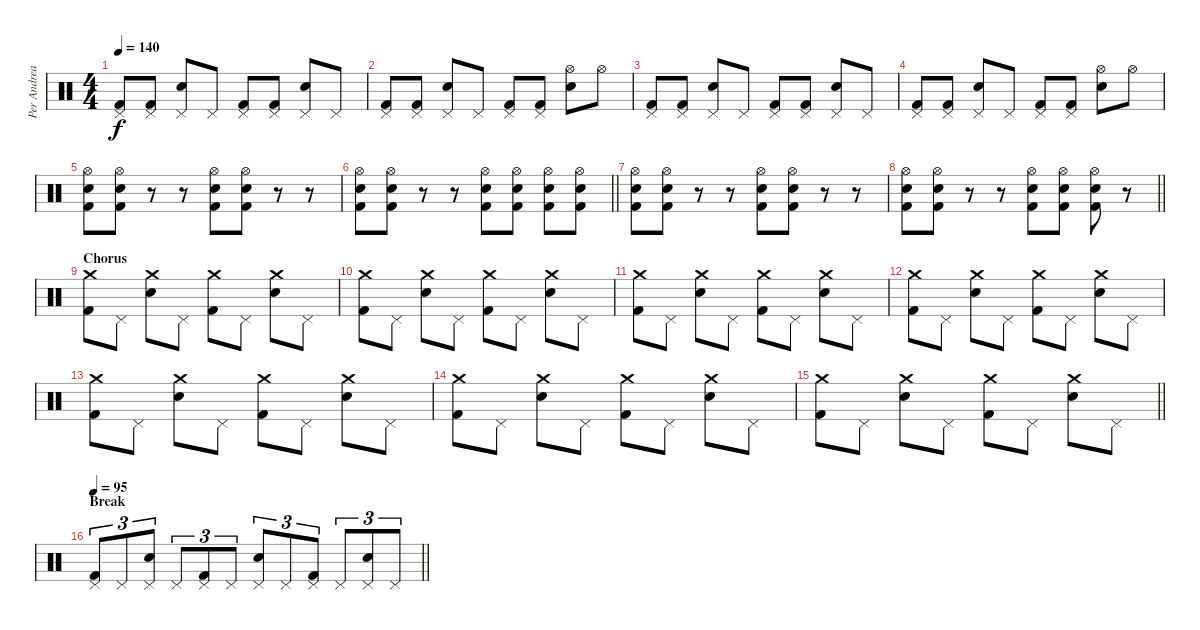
\track ("Per Andreasson" "Per Andrea") {instrument percussion}
\staff {score}
\articulation defaults
\ts (4 4)
\tempo 140
\clef neutral
\ks c
("Pedal Hi-Hat (hit)" "Kick (hit) 2").8{dy f} ("Pedal Hi-Hat (hit)" "Kick (hit) 2").8 ("Pedal Hi-Hat (hit)" "Snare (hit) 2").8 "Pedal Hi-Hat (hit)".8 ("Pedal Hi-Hat (hit)" "Kick (hit) 2").8 ("Pedal Hi-Hat (hit)" "Kick (hit) 2").8 ("Pedal Hi-Hat (hit)" "Snare (hit) 2").8 "Pedal Hi-Hat (hit)".8 |
("Pedal Hi-Hat (hit)" "Kick (hit) 2").8 ("Pedal Hi-Hat (hit)" "Kick (hit) 2").8 ("Pedal Hi-Hat (hit)" "Snare (hit) 2").8 "Pedal Hi-Hat (hit)".8 ("Pedal Hi-Hat (hit)" "Kick (hit) 2").8 ("Pedal Hi-Hat (hit)" "Kick (hit) 2").8 ("Hi-Hat (open)" "Snare (hit) 2").8 "Hi-Hat (open)".8 |
("Pedal Hi-Hat (hit)" "Kick (hit) 2").8 ("Pedal Hi-Hat (hit)" "Kick (hit) 2").8 ("Pedal Hi-Hat (hit)" "Snare (hit) 2").8 "Pedal Hi-Hat (hit)".8 ("Pedal Hi-Hat (hit)" "Kick (hit) 2").8 ("Pedal Hi-Hat (hit)" "Kick (hit) 2").8 ("Pedal Hi-Hat (hit)" "Snare (hit) 2").8 "Pedal Hi-Hat (hit)".8 |
("Pedal Hi-Hat (hit)" "Kick (hit) 2").8 ("Pedal Hi-Hat (hit)" "Kick (hit) 2").8 ("Pedal Hi-Hat (hit)" "Snare (hit) 2").8 "Pedal Hi-Hat (hit)".8 ("Pedal Hi-Hat (hit)" "Kick (hit) 2").8 ("Pedal Hi-Hat (hit)" "Kick (hit) 2").8 ("Hi-Hat (open)" "Snare (hit) 2").8 "Hi-Hat (open)".8 |
("Hi-Hat (open)" "Snare (hit) 2" "Kick (hit) 2").8 ("Hi-Hat (open)" "Snare (hit) 2" "Kick (hit) 2").8 r.8 r.8 ("Hi-Hat (open)" "Snare (hit) 2" "Kick (hit) 2").8 ("Hi-Hat (open)" "Snare (hit) 2" "Kick (hit) 2").8 r.8 r.8 |
\barLineRight lightlight
("Hi-Hat (open)" "Snare (hit) 2" "Kick (hit) 2").8 ("Hi-Hat (open)" "Snare (hit) 2" "Kick (hit) 2").8 r.8 r.8 ("Hi-Hat (open)" "Snare (hit) 2" "Kick (hit) 2").8 ("Hi-Hat (open)" "Snare (hit) 2" "Kick (hit) 2").8 ("Hi-Hat (open)" "Snare (hit) 2" "Kick (hit) 2").8 ("Hi-Hat (open)" "Snare (hit) 2" "Kick (hit) 2").8 |
("Hi-Hat (open)" "Snare (hit) 2" "Kick (hit) 2").8 ("Hi-Hat (open)" "Snare (hit) 2" "Kick (hit) 2").8 r.8 r.8 ("Hi-Hat (open)" "Snare (hit) 2" "Kick (hit) 2").8 ("Hi-Hat (open)" "Snare (hit) 2" "Kick (hit) 2").8 r.8 r.8 |
\barLineRight lightlight
("Hi-Hat (open)" "Snare (hit) 2" "Kick (hit) 2").8 ("Hi-Hat (open)" "Snare (hit) 2" "Kick (hit) 2").8 r.8 r.8 ("Hi-Hat (open)" "Snare (hit) 2" "Kick (hit) 2").8 ("Hi-Hat (open)" "Snare (hit) 2" "Kick (hit) 2").8 ("Hi-Hat (open)" "Snare (hit) 2" "Kick (hit) 2").8 r.8 |
\section ("" "Chorus")
("Crash medium (hit)" "Kick (hit) 2").8 "Pedal Hi-Hat (hit)".8 ("Crash medium (hit)" "Snare (hit) 2").8 "Pedal Hi-Hat (hit)".8 ("Crash medium (hit)" "Kick (hit) 2").8 "Pedal Hi-Hat (hit)".8 ("Crash medium (hit)" "Snare (hit) 2").8 "Pedal Hi-Hat (hit)".8 |
("Crash medium (hit)" "Kick (hit) 2").8 "Pedal Hi-Hat (hit)".8 ("Crash medium (hit)" "Snare (hit) 2").8 "Pedal Hi-Hat (hit)".8 ("Crash medium (hit)" "Kick (hit) 2").8 "Pedal Hi-Hat (hit)".8 ("Crash medium (hit)" "Snare (hit) 2").8 "Pedal Hi-Hat (hit)".8 |
("Crash medium (hit)" "Kick (hit) 2").8 "Pedal Hi-Hat (hit)".8 ("Crash medium (hit)" "Snare (hit) 2").8 "Pedal Hi-Hat (hit)".8 ("Crash medium (hit)" "Kick (hit) 2").8 "Pedal Hi-Hat (hit)".8 ("Crash medium (hit)" "Snare (hit) 2").8 "Pedal Hi-Hat (hit)".8 |
("Crash medium (hit)" "Kick (hit) 2").8 "Pedal Hi-Hat (hit)".8 ("Crash medium (hit)" "Snare (hit) 2").8 "Pedal Hi-Hat (hit)".8 ("Crash medium (hit)" "Kick (hit) 2").8 "Pedal Hi-Hat (hit)".8 ("Crash medium (hit)" "Snare (hit) 2").8 "Pedal Hi-Hat (hit)".8 |
("Crash medium (hit)" "Kick (hit) 2").8 "Pedal Hi-Hat (hit)".8 ("Crash medium (hit)" "Snare (hit) 2").8 "Pedal Hi-Hat (hit)".8 ("Crash medium (hit)" "Kick (hit) 2").8 "Pedal Hi-Hat (hit)".8 ("Crash medium (hit)" "Snare (hit) 2").8 "Pedal Hi-Hat (hit)".8 |
("Crash medium (hit)" "Kick (hit) 2").8 "Pedal Hi-Hat (hit)".8 ("Crash medium (hit)" "Snare (hit) 2").8 "Pedal Hi-Hat (hit)".8 ("Crash medium (hit)" "Kick (hit) 2").8 "Pedal Hi-Hat (hit)".8 ("Crash medium (hit)" "Snare (hit) 2").8 "Pedal Hi-Hat (hit)".8 |
\barLineRight lightlight
("Crash medium (hit)" "Kick (hit) 2").8 "Pedal Hi-Hat (hit)".8 ("Crash medium (hit)" "Snare (hit) 2").8 "Pedal Hi-Hat (hit)".8 ("Crash medium (hit)" "Kick (hit) 2").8 "Pedal Hi-Hat (hit)".8 ("Crash medium (hit)" "Snare (hit) 2").8 "Pedal Hi-Hat (hit)".8 |
\section ("" "Break")
\tempo 95
\barLineRight lightlight
("Pedal Hi-Hat (hit)" "Kick (hit) 2").8{tu (3 2)} "Pedal Hi-Hat (hit)".8{tu (3 2)} ("Pedal Hi-Hat (hit)" "Snare (hit) 2").8{tu (3 2)} "Pedal Hi-Hat (hit)".8{tu (3 2)} ("Pedal Hi-Hat (hit)" "Kick (hit) 2").8{tu (3 2)} "Pedal Hi-Hat (hit)".8{tu (3 2)} ("Pedal Hi-Hat (hit)" "Snare (hit) 2").8{tu (3 2)} "Pedal Hi-Hat (hit)".8{tu (3 2)} ("Pedal Hi-Hat (hit)" "Kick (hit) 2").8{tu (3 2)} "Pedal Hi-Hat (hit)".8{tu (3 2)} ("Pedal Hi-Hat (hit)" "Snare (hit) 2").8{tu (3 2)} "Pedal Hi-Hat (hit)".8{tu (3 2)}
